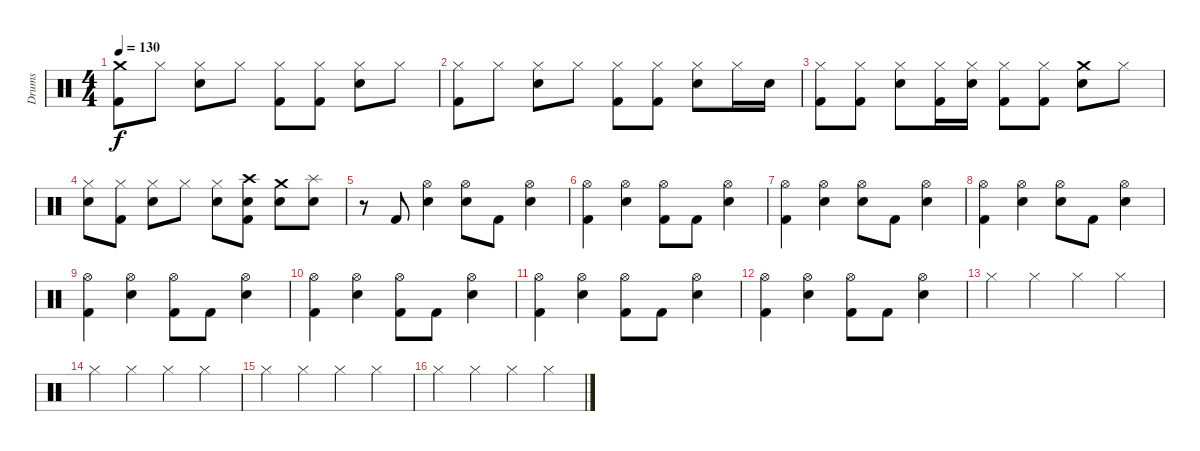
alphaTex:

\track ("Drums" "Drums") {instrument percussion}
\staff {score}
\articulation defaults
\ts (4 4)
\tempo 130
\clef neutral
\ks c
("Crash medium (hit)" "Kick (hit) 2").8{dy f} "Hi-Hat (closed)".8 ("Hi-Hat (closed)" "Electric Snare (hit)").8 "Hi-Hat (closed)".8 ("Hi-Hat (closed)" "Kick (hit) 2").8 ("Hi-Hat (closed)" "Kick (hit) 2").8 ("Hi-Hat (closed)" "Electric Snare (hit)").8 "Hi-Hat (closed)".8 |
("Hi-Hat (closed)" "Kick (hit) 2").8 "Hi-Hat (closed)".8 ("Hi-Hat (closed)" "Electric Snare (hit)").8 "Hi-Hat (closed)".8 ("Hi-Hat (closed)" "Kick (hit) 2").8 ("Hi-Hat (closed)" "Kick (hit) 2").8 ("Hi-Hat (closed)" "Electric Snare (hit)").8 "Hi-Hat (closed)".16 "Electric Snare (hit)".16 |
("Hi-Hat (closed)" "Kick (hit) 2").8 ("Hi-Hat (closed)" "Kick (hit) 2").8 ("Hi-Hat (closed)" "Electric Snare (hit)").8 ("Hi-Hat (closed)" "Kick (hit) 2").16 ("Hi-Hat (closed)" "Electric Snare (hit)").16 ("Hi-Hat (closed)" "Kick (hit) 2").8 ("Hi-Hat (closed)" "Kick (hit) 2").8 ("Crash medium (hit)" "Electric Snare (hit)").8 "Hi-Hat (closed)".8 |
("Hi-Hat (closed)" "Electric Snare (hit)").8 ("Hi-Hat (closed)" "Kick (hit) 2").8 ("Hi-Hat (closed)" "Electric Snare (hit)").8 "Hi-Hat (closed)".8 ("Hi-Hat (closed)" "Electric Snare (hit)").8 ("Crash high (hit)" "Electric Snare (hit)" "Kick (hit) 2").8 ("Crash medium (hit)" "Electric Snare (hit)").8 ("Splash (hit)" "Electric Snare (hit)").8 |
r.8 "Kick (hit) 2".8 ("Hi-Hat (open)" "Electric Snare (hit)").4 ("Hi-Hat (open)" "Electric Snare (hit)").8 "Kick (hit) 2".8 ("Hi-Hat (open)" "Electric Snare (hit)").4 |
("Hi-Hat (open)" "Kick (hit) 2").4 ("Hi-Hat (open)" "Electric Snare (hit)").4 ("Hi-Hat (open)" "Kick (hit) 2").8 "Kick (hit) 2".8 ("Hi-Hat (open)" "Electric Snare (hit)").4 |
("Hi-Hat (open)" "Kick (hit) 2").4 ("Hi-Hat (open)" "Electric Snare (hit)").4 ("Hi-Hat (open)" "Electric Snare (hit)").8 "Kick (hit) 2".8 ("Hi-Hat (open)" "Electric Snare (hit)").4 |
("Hi-Hat (open)" "Kick (hit) 2").4 ("Hi-Hat (open)" "Electric Snare (hit)").4 ("Hi-Hat (open)" "Electric Snare (hit)").8 "Kick (hit) 2".8 ("Hi-Hat (open)" "Electric Snare (hit)").4 |
("Hi-Hat (open)" "Kick (hit) 2").4 ("Hi-Hat (open)" "Electric Snare (hit)").4 ("Hi-Hat (open)" "Kick (hit) 2").8 "Kick (hit) 2".8 ("Hi-Hat (open)" "Electric Snare (hit)").4 |
("Hi-Hat (open)" "Kick (hit) 2").4 ("Hi-Hat (open)" "Electric Snare (hit)").4 ("Hi-Hat (open)" "Kick (hit) 2").8 "Kick (hit) 2".8 ("Hi-Hat (open)" "Electric Snare (hit)").4 |
("Hi-Hat (open)" "Kick (hit) 2").4 ("Hi-Hat (open)" "Electric Snare (hit)").4 ("Hi-Hat (open)" "Kick (hit) 2").8 "Kick (hit) 2".8 ("Hi-Hat (open)" "Electric Snare (hit)").4 |
("Hi-Hat (open)" "Kick (hit) 2").4 ("Hi-Hat (open)" "Electric Snare (hit)").4 ("Hi-Hat (open)" "Kick (hit) 2").8 "Kick (hit) 2".8 ("Hi-Hat (open)" "Electric Snare (hit)").4 |
"Hi-Hat (closed)".4 "Hi-Hat (closed)".4 "Hi-Hat (closed)".4 "Hi-Hat (closed)".4 |
"Hi-Hat (closed)".4 "Hi-Hat (closed)".4 "Hi-Hat (closed)".4 "Hi-Hat (closed)".4 |
"Hi-Hat (closed)".4 "Hi-Hat (closed)".4 "Hi-Hat (closed)".4 "Hi-Hat (closed)".4 |
"Hi-Hat (closed)".4 "Hi-Hat (closed)".4 "Hi-Hat (closed)".4 "Hi-Hat (closed)".4
